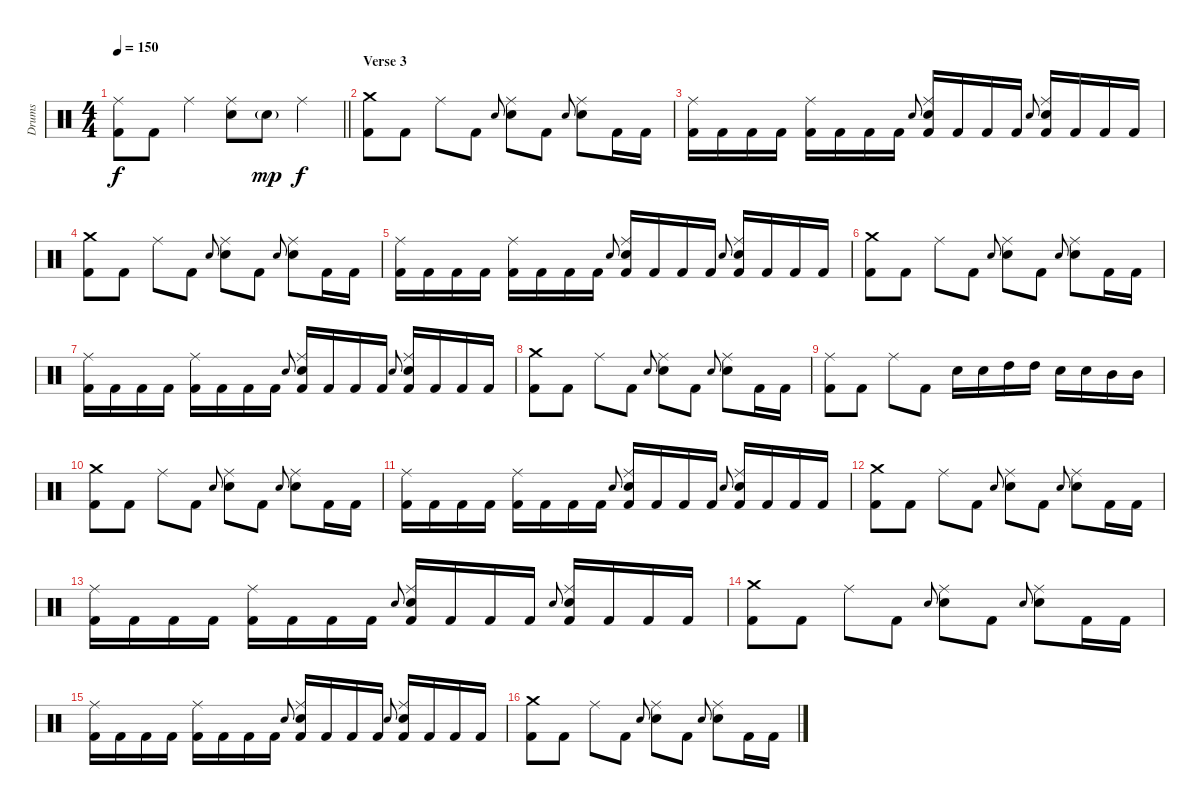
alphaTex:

\track ("Drums" "Drums") {instrument percussion}
\staff {score}
\articulation defaults
\ts (4 4)
\tempo 150
\clef neutral
\barLineRight lightlight
\ks c
("Kick (hit) 2" "Ride (middle)").8{dy f} "Kick (hit) 2".8 "Ride (middle)".4 ("Snare (hit) 2" "Ride (middle)").8 "Snare (hit) 2"{g}.8{dy mp} "Ride (middle)".4{dy f} |
\section ("" "Verse 3")
("Kick (hit) 2" "Crash medium (hit)").8 "Kick (hit) 2".8 "Ride (middle)".8 "Kick (hit) 2".8 "Snare (hit) 2".8{gr onbeat} ("Snare (hit) 2" "Ride (middle)").8 "Kick (hit) 2".8 "Snare (hit) 2".8{gr onbeat} ("Snare (hit) 2" "Ride (middle)").8 "Kick (hit) 2".16 "Kick (hit) 2".16 |
("Kick (hit) 2" "Ride (middle)").16 "Kick (hit) 2".16 "Kick (hit) 2".16 "Kick (hit) 2".16 ("Kick (hit) 2" "Ride (middle)").16 "Kick (hit) 2".16 "Kick (hit) 2".16 "Kick (hit) 2".16 "Snare (hit) 2".8{gr onbeat} ("Kick (hit) 2" "Snare (hit) 2" "Ride (middle)").16 "Kick (hit) 2".16 "Kick (hit) 2".16 "Kick (hit) 2".16 "Snare (hit) 2".8{gr onbeat} ("Kick (hit) 2" "Snare (hit) 2" "Ride (middle)").16 "Kick (hit) 2".16 "Kick (hit) 2".16 "Kick (hit) 2".16 |
("Kick (hit) 2" "Crash medium (hit)").8 "Kick (hit) 2".8 "Ride (middle)".8 "Kick (hit) 2".8 "Snare (hit) 2".8{gr onbeat} ("Snare (hit) 2" "Ride (middle)").8 "Kick (hit) 2".8 "Snare (hit) 2".8{gr onbeat} ("Snare (hit) 2" "Ride (middle)").8 "Kick (hit) 2".16 "Kick (hit) 2".16 |
("Kick (hit) 2" "Ride (middle)").16 "Kick (hit) 2".16 "Kick (hit) 2".16 "Kick (hit) 2".16 ("Kick (hit) 2" "Ride (middle)").16 "Kick (hit) 2".16 "Kick (hit) 2".16 "Kick (hit) 2".16 "Snare (hit) 2".8{gr onbeat} ("Kick (hit) 2" "Snare (hit) 2" "Ride (middle)").16 "Kick (hit) 2".16 "Kick (hit) 2".16 "Kick (hit) 2".16 "Snare (hit) 2".8{gr onbeat} ("Kick (hit) 2" "Snare (hit) 2" "Ride (middle)").16 "Kick (hit) 2".16 "Kick (hit) 2".16 "Kick (hit) 2".16 |
("Kick (hit) 2" "Crash medium (hit)").8 "Kick (hit) 2".8 "Ride (middle)".8 "Kick (hit) 2".8 "Snare (hit) 2".8{gr onbeat} ("Snare (hit) 2" "Ride (middle)").8 "Kick (hit) 2".8 "Snare (hit) 2".8{gr onbeat} ("Snare (hit) 2" "Ride (middle)").8 "Kick (hit) 2".16 "Kick (hit) 2".16 |
("Kick (hit) 2" "Ride (middle)").16 "Kick (hit) 2".16 "Kick (hit) 2".16 "Kick (hit) 2".16 ("Kick (hit) 2" "Ride (middle)").16 "Kick (hit) 2".16 "Kick (hit) 2".16 "Kick (hit) 2".16 "Snare (hit) 2".8{gr onbeat} ("Kick (hit) 2" "Snare (hit) 2" "Ride (middle)").16 "Kick (hit) 2".16 "Kick (hit) 2".16 "Kick (hit) 2".16 "Snare (hit) 2".8{gr onbeat} ("Kick (hit) 2" "Snare (hit) 2" "Ride (middle)").16 "Kick (hit) 2".16 "Kick (hit) 2".16 "Kick (hit) 2".16 |
("Kick (hit) 2" "Crash medium (hit)").8 "Kick (hit) 2".8 "Ride (middle)".8 "Kick (hit) 2".8 "Snare (hit) 2".8{gr onbeat} ("Snare (hit) 2" "Ride (middle)").8 "Kick (hit) 2".8 "Snare (hit) 2".8{gr onbeat} ("Snare (hit) 2" "Ride (middle)").8 "Kick (hit) 2".16 "Kick (hit) 2".16 |
("Kick (hit) 2" "Ride (middle)").8 "Kick (hit) 2".8 "Ride (middle)".8 "Kick (hit) 2".8 "Snare (hit) 2".16 "Snare (hit) 2".16 "High Tom (hit)".16 "High Tom (hit)".16 "Snare (hit) 2".16 "Snare (hit) 2".16 "Mid Tom (hit)".16 "Mid Tom (hit)".16 |
("Kick (hit) 2" "Crash medium (hit)").8 "Kick (hit) 2".8 "Ride (middle)".8 "Kick (hit) 2".8 "Snare (hit) 2".8{gr onbeat} ("Snare (hit) 2" "Ride (middle)").8 "Kick (hit) 2".8 "Snare (hit) 2".8{gr onbeat} ("Snare (hit) 2" "Ride (middle)").8 "Kick (hit) 2".16 "Kick (hit) 2".16 |
("Kick (hit) 2" "Ride (middle)").16 "Kick (hit) 2".16 "Kick (hit) 2".16 "Kick (hit) 2".16 ("Kick (hit) 2" "Ride (middle)").16 "Kick (hit) 2".16 "Kick (hit) 2".16 "Kick (hit) 2".16 "Snare (hit) 2".8{gr onbeat} ("Kick (hit) 2" "Snare (hit) 2" "Ride (middle)").16 "Kick (hit) 2".16 "Kick (hit) 2".16 "Kick (hit) 2".16 "Snare (hit) 2".8{gr onbeat} ("Kick (hit) 2" "Snare (hit) 2" "Ride (middle)").16 "Kick (hit) 2".16 "Kick (hit) 2".16 "Kick (hit) 2".16 |
("Kick (hit) 2" "Crash medium (hit)").8 "Kick (hit) 2".8 "Ride (middle)".8 "Kick (hit) 2".8 "Snare (hit) 2".8{gr onbeat} ("Snare (hit) 2" "Ride (middle)").8 "Kick (hit) 2".8 "Snare (hit) 2".8{gr onbeat} ("Snare (hit) 2" "Ride (middle)").8 "Kick (hit) 2".16 "Kick (hit) 2".16 |
("Kick (hit) 2" "Ride (middle)").16 "Kick (hit) 2".16 "Kick (hit) 2".16 "Kick (hit) 2".16 ("Kick (hit) 2" "Ride (middle)").16 "Kick (hit) 2".16 "Kick (hit) 2".16 "Kick (hit) 2".16 "Snare (hit) 2".8{gr onbeat} ("Kick (hit) 2" "Snare (hit) 2" "Ride (middle)").16 "Kick (hit) 2".16 "Kick (hit) 2".16 "Kick (hit) 2".16 "Snare (hit) 2".8{gr onbeat} ("Kick (hit) 2" "Snare (hit) 2" "Ride (middle)").16 "Kick (hit) 2".16 "Kick (hit) 2".16 "Kick (hit) 2".16 |
("Kick (hit) 2" "Crash medium (hit)").8 "Kick (hit) 2".8 "Ride (middle)".8 "Kick (hit) 2".8 "Snare (hit) 2".8{gr onbeat} ("Snare (hit) 2" "Ride (middle)").8 "Kick (hit) 2".8 "Snare (hit) 2".8{gr onbeat} ("Snare (hit) 2" "Ride (middle)").8 "Kick (hit) 2".16 "Kick (hit) 2".16 |
("Kick (hit) 2" "Ride (middle)").16 "Kick (hit) 2".16 "Kick (hit) 2".16 "Kick (hit) 2".16 ("Kick (hit) 2" "Ride (middle)").16 "Kick (hit) 2".16 "Kick (hit) 2".16 "Kick (hit) 2".16 "Snare (hit) 2".8{gr onbeat} ("Kick (hit) 2" "Snare (hit) 2" "Ride (middle)").16 "Kick (hit) 2".16 "Kick (hit) 2".16 "Kick (hit) 2".16 "Snare (hit) 2".8{gr onbeat} ("Kick (hit) 2" "Snare (hit) 2" "Ride (middle)").16 "Kick (hit) 2".16 "Kick (hit) 2".16 "Kick (hit) 2".16 |
("Kick (hit) 2" "Crash medium (hit)").8 "Kick (hit) 2".8 "Ride (middle)".8 "Kick (hit) 2".8 "Snare (hit) 2".8{gr onbeat} ("Snare (hit) 2" "Ride (middle)").8 "Kick (hit) 2".8 "Snare (hit) 2".8{gr onbeat} ("Snare (hit) 2" "Ride (middle)").8 "Kick (hit) 2".16 "Kick (hit) 2".16
